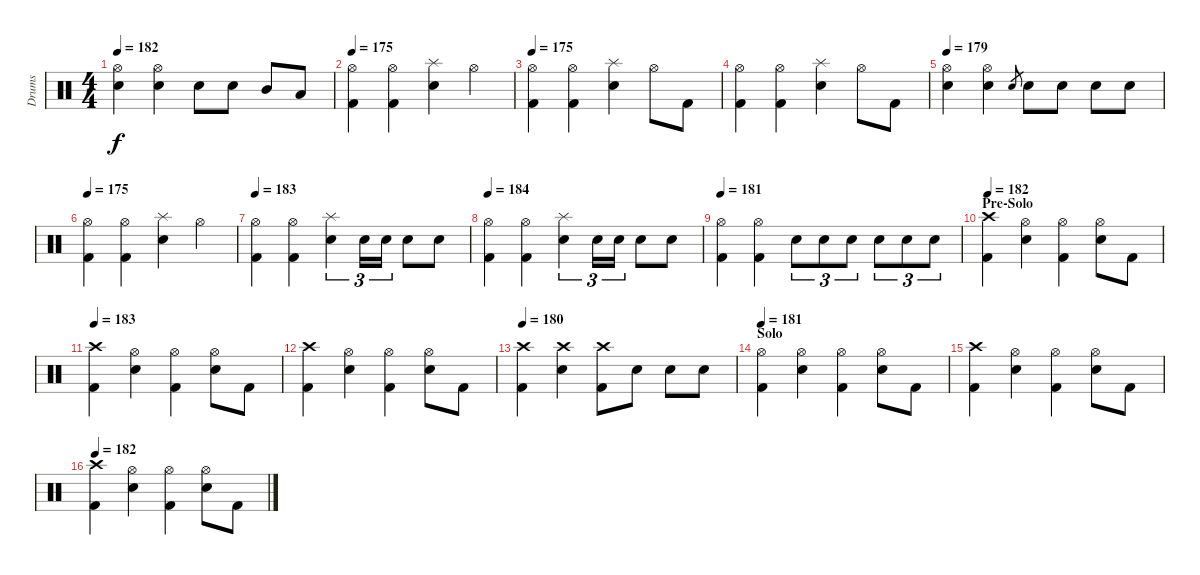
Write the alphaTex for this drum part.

\track ("Drums" "Drums") {instrument percussion}
\staff {score}
\articulation defaults
\ts (4 4)
\tempo 182
\clef neutral
\ks c
("Snare (hit) 2" "Hi-Hat (open)").4{dy f} ("Snare (hit) 2" "Hi-Hat (open)").4 "Snare (hit) 2".8 "Snare (hit) 2".8 "Mid Tom (hit)".8 "Low Tom (hit)".8 |
\tempo 175
("Kick (hit) 2" "Hi-Hat (open)").4 ("Kick (hit) 2" "Hi-Hat (open)").4 ("Snare (hit) 2" "Splash (hit)").4 "Hi-Hat (open)".4 |
\tempo 175
("Kick (hit) 2" "Hi-Hat (open)").4 ("Kick (hit) 2" "Hi-Hat (open)").4 ("Snare (hit) 2" "Splash (hit)").4 "Hi-Hat (open)".8 "Kick (hit) 2".8 |
("Kick (hit) 2" "Hi-Hat (open)").4 ("Kick (hit) 2" "Hi-Hat (open)").4 ("Snare (hit) 2" "Splash (hit)").4 "Hi-Hat (open)".8 "Kick (hit) 2".8 |
\tempo 179
("Snare (hit) 2" "Hi-Hat (open)").4 ("Snare (hit) 2" "Hi-Hat (open)").4 "Snare (hit)".8{gr} "Snare (hit) 2".8 "Snare (hit) 2".8 "Snare (hit) 2".8 "Snare (hit) 2".8 |
\tempo 175
("Kick (hit) 2" "Hi-Hat (open)").4 ("Kick (hit) 2" "Hi-Hat (open)").4 ("Snare (hit) 2" "Splash (hit)").4 "Hi-Hat (open)".4 |
\tempo 183
("Kick (hit) 2" "Hi-Hat (open)").4 ("Kick (hit) 2" "Hi-Hat (open)").4 ("Snare (hit) 2" "Splash (hit)").4{tu (3 2)} "Snare (hit) 2".16{tu (3 2)} "Snare (hit) 2".16{tu (3 2)} "Snare (hit) 2".8 "Snare (hit) 2".8 |
\tempo 184
("Kick (hit) 2" "Hi-Hat (open)").4 ("Kick (hit) 2" "Hi-Hat (open)").4 ("Snare (hit) 2" "Splash (hit)").4{tu (3 2)} "Snare (hit) 2".16{tu (3 2)} "Snare (hit) 2".16{tu (3 2)} "Snare (hit) 2".8 "Snare (hit) 2".8 |
\tempo 181
("Kick (hit) 2" "Hi-Hat (open)").4 ("Kick (hit) 2" "Hi-Hat (open)").4 "Snare (hit) 2".8{tu (3 2)} "Snare (hit) 2".8{tu (3 2)} "Snare (hit) 2".8{tu (3 2)} "Snare (hit) 2".8{tu (3 2)} "Snare (hit) 2".8{tu (3 2)} "Snare (hit) 2".8{tu (3 2)} |
\section ("" "Pre-Solo")
\tempo 182
("Crash high (hit)" "Kick (hit) 2").4 ("Snare (hit) 2" "Hi-Hat (open)").4 ("Hi-Hat (open)" "Kick (hit) 2").4 ("Hi-Hat (open)" "Snare (hit) 2").8 "Kick (hit) 2".8 |
\tempo 183
("Kick (hit) 2" "Crash high (hit)").4 ("Snare (hit) 2" "Hi-Hat (open)").4 ("Hi-Hat (open)" "Kick (hit) 2").4 ("Hi-Hat (open)" "Snare (hit) 2").8 "Kick (hit) 2".8 |
("Kick (hit) 2" "Crash high (hit)").4 ("Snare (hit) 2" "Hi-Hat (open)").4 ("Hi-Hat (open)" "Kick (hit) 2").4 ("Hi-Hat (open)" "Snare (hit) 2").8 "Kick (hit) 2".8 |
\tempo 180
("Kick (hit) 2" "Crash high (hit)").4 ("Snare (hit) 2" "Crash high (hit)").4 ("Kick (hit) 2" "Crash high (hit)").8 "Snare (hit) 2".8 "Snare (hit) 2".8 "Snare (hit) 2".8 |
\section ("" "Solo")
\tempo 181
("Kick (hit) 2" "Hi-Hat (open)").4 ("Snare (hit) 2" "Hi-Hat (open)").4 ("Hi-Hat (open)" "Kick (hit) 2").4 ("Hi-Hat (open)" "Snare (hit) 2").8 "Kick (hit) 2".8 |
("Kick (hit) 2" "Crash high (hit)").4 ("Snare (hit) 2" "Hi-Hat (open)").4 ("Hi-Hat (open)" "Kick (hit) 2").4 ("Hi-Hat (open)" "Snare (hit) 2").8 "Kick (hit) 2".8 |
\tempo 182
("Kick (hit) 2" "Crash high (hit)").4 ("Snare (hit) 2" "Hi-Hat (open)").4 ("Hi-Hat (open)" "Kick (hit) 2").4 ("Hi-Hat (open)" "Snare (hit) 2").8 "Kick (hit) 2".8
